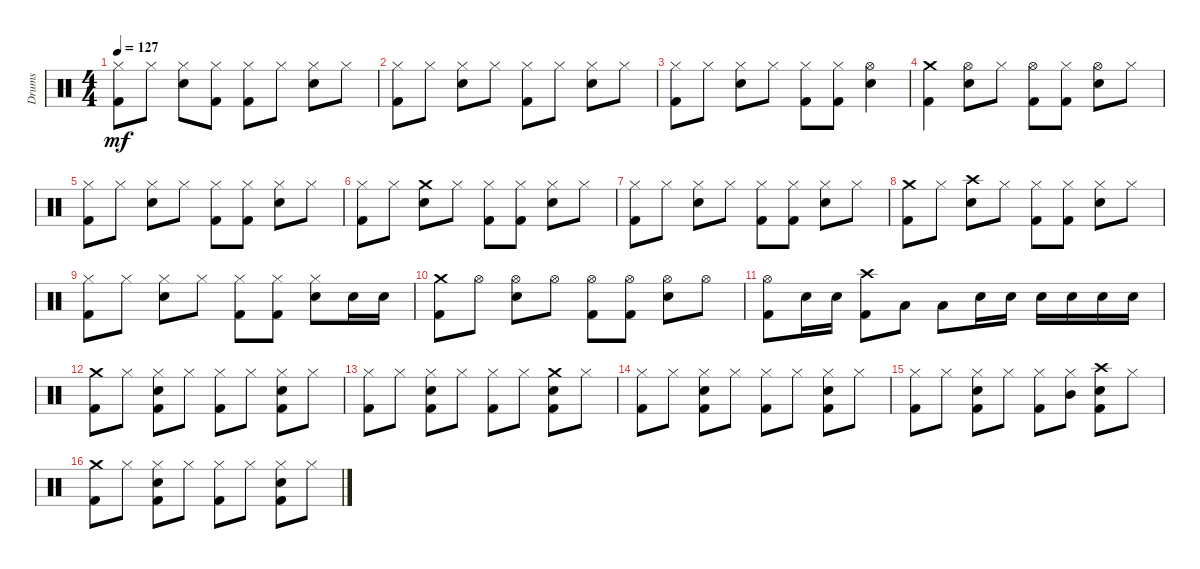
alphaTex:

\track ("Drums" "Drums") {instrument percussion}
\staff {score}
\articulation defaults
\ts (4 4)
\tempo 127
\clef neutral
\ks c
("Hi-Hat (closed)" "Kick (hit) 2").8{dy mf} "Hi-Hat (closed)".8 ("Hi-Hat (closed)" "Electric Snare (hit)").8 ("Hi-Hat (closed)" "Kick (hit) 2").8 ("Hi-Hat (closed)" "Kick (hit) 2").8 "Hi-Hat (closed)".8 ("Hi-Hat (closed)" "Electric Snare (hit)").8 "Hi-Hat (closed)".8 |
("Hi-Hat (closed)" "Kick (hit) 2").8 "Hi-Hat (closed)".8 ("Hi-Hat (closed)" "Electric Snare (hit)").8 "Hi-Hat (closed)".8 ("Hi-Hat (closed)" "Kick (hit) 2").8 "Hi-Hat (closed)".8 ("Hi-Hat (closed)" "Electric Snare (hit)").8 "Hi-Hat (closed)".8 |
("Hi-Hat (closed)" "Kick (hit) 2").8 "Hi-Hat (closed)".8 ("Hi-Hat (closed)" "Electric Snare (hit)").8 "Hi-Hat (closed)".8 ("Hi-Hat (closed)" "Kick (hit) 2").8 ("Hi-Hat (closed)" "Kick (hit) 2").8 ("Hi-Hat (open)" "Electric Snare (hit)").4 |
("Crash medium (hit)" "Kick (hit) 2").4 ("Hi-Hat (open)" "Electric Snare (hit)").8 "Hi-Hat (closed)".8 ("Hi-Hat (open)" "Kick (hit) 2").8 ("Hi-Hat (closed)" "Kick (hit) 2").8 ("Hi-Hat (open)" "Electric Snare (hit)").8 "Hi-Hat (closed)".8 |
("Hi-Hat (closed)" "Kick (hit) 2").8 "Hi-Hat (closed)".8 ("Hi-Hat (closed)" "Electric Snare (hit)").8 "Hi-Hat (closed)".8 ("Hi-Hat (closed)" "Kick (hit) 2").8 ("Hi-Hat (closed)" "Kick (hit) 2").8 ("Hi-Hat (closed)" "Electric Snare (hit)").8 "Hi-Hat (closed)".8 |
("Hi-Hat (closed)" "Kick (hit) 2").8 "Hi-Hat (closed)".8 ("Crash medium (hit)" "Electric Snare (hit)").8 "Hi-Hat (closed)".8 ("Hi-Hat (closed)" "Kick (hit) 2").8 ("Hi-Hat (closed)" "Kick (hit) 2").8 ("Hi-Hat (closed)" "Electric Snare (hit)").8 "Hi-Hat (closed)".8 |
("Hi-Hat (closed)" "Kick (hit) 2").8 "Hi-Hat (closed)".8 ("Hi-Hat (closed)" "Electric Snare (hit)").8 "Hi-Hat (closed)".8 ("Hi-Hat (closed)" "Kick (hit) 2").8 ("Hi-Hat (closed)" "Kick (hit) 2").8 ("Hi-Hat (closed)" "Electric Snare (hit)").8 "Hi-Hat (closed)".8 |
("Crash medium (hit)" "Kick (hit) 2").8 "Hi-Hat (closed)".8 ("Crash high (hit)" "Electric Snare (hit)").8 "Hi-Hat (closed)".8 ("Hi-Hat (closed)" "Kick (hit) 2").8 ("Hi-Hat (closed)" "Kick (hit) 2").8 ("Hi-Hat (closed)" "Electric Snare (hit)").8 "Hi-Hat (closed)".8 |
("Hi-Hat (closed)" "Kick (hit) 2").8 "Hi-Hat (closed)".8 ("Hi-Hat (closed)" "Electric Snare (hit)").8 "Hi-Hat (closed)".8 ("Hi-Hat (closed)" "Kick (hit) 2").8 ("Hi-Hat (closed)" "Kick (hit) 2").8 ("Hi-Hat (closed)" "Electric Snare (hit)").8 "Electric Snare (hit)".16 "Electric Snare (hit)".16 |
("Crash medium (hit)" "Kick (hit) 2").8 "Hi-Hat (open)".8 ("Hi-Hat (open)" "Electric Snare (hit)").8 "Hi-Hat (open)".8 ("Hi-Hat (open)" "Kick (hit) 2").8 ("Hi-Hat (open)" "Kick (hit) 2").8 ("Hi-Hat (open)" "Electric Snare (hit)").8 "Hi-Hat (open)".8 |
("Hi-Hat (open)" "Kick (hit) 2").8 "Electric Snare (hit)".16 "Electric Snare (hit)".16 ("Crash high (hit)" "Kick (hit) 2").8 "Low Tom (hit)".8 "Low Tom (hit)".8 "Electric Snare (hit)".16 "Electric Snare (hit)".16 "Electric Snare (hit)".16 "Electric Snare (hit)".16 "Electric Snare (hit)".16 "Electric Snare (hit)".16 |
("Crash medium (hit)" "Kick (hit) 2").8 "Hi-Hat (closed)".8 ("Hi-Hat (closed)" "Electric Snare (hit)" "Kick (hit) 2").8 "Hi-Hat (closed)".8 ("Hi-Hat (closed)" "Kick (hit) 2").8 "Hi-Hat (closed)".8 ("Hi-Hat (closed)" "Electric Snare (hit)" "Kick (hit) 2").8 "Hi-Hat (closed)".8 |
("Hi-Hat (closed)" "Kick (hit) 2").8 "Hi-Hat (closed)".8 ("Hi-Hat (closed)" "Electric Snare (hit)" "Kick (hit) 2").8 "Hi-Hat (closed)".8 ("Hi-Hat (closed)" "Kick (hit) 2").8 "Hi-Hat (closed)".8 ("Crash medium (hit)" "Electric Snare (hit)" "Kick (hit) 2").8 "Hi-Hat (closed)".8 |
("Hi-Hat (closed)" "Kick (hit) 2").8 "Hi-Hat (closed)".8 ("Hi-Hat (closed)" "Electric Snare (hit)" "Kick (hit) 2").8 "Hi-Hat (closed)".8 ("Hi-Hat (closed)" "Kick (hit) 2").8 "Hi-Hat (closed)".8 ("Hi-Hat (closed)" "Electric Snare (hit)" "Kick (hit) 2").8 "Hi-Hat (closed)".8 |
("Hi-Hat (closed)" "Kick (hit) 2").8 "Hi-Hat (closed)".8 ("Hi-Hat (closed)" "Electric Snare (hit)" "Kick (hit) 2").8 "Hi-Hat (closed)".8 ("Hi-Hat (closed)" "Kick (hit) 2").8 ("Hi-Hat (closed)" "Mid Tom (hit)").8 ("Crash high (hit)" "Electric Snare (hit)" "Kick (hit) 2").8 "Hi-Hat (closed)".8 |
("Crash medium (hit)" "Kick (hit) 2").8 "Hi-Hat (closed)".8 ("Hi-Hat (closed)" "Electric Snare (hit)" "Kick (hit) 2").8 "Hi-Hat (closed)".8 ("Hi-Hat (closed)" "Kick (hit) 2").8 "Hi-Hat (closed)".8 ("Hi-Hat (closed)" "Electric Snare (hit)" "Kick (hit) 2").8 "Hi-Hat (closed)".8
